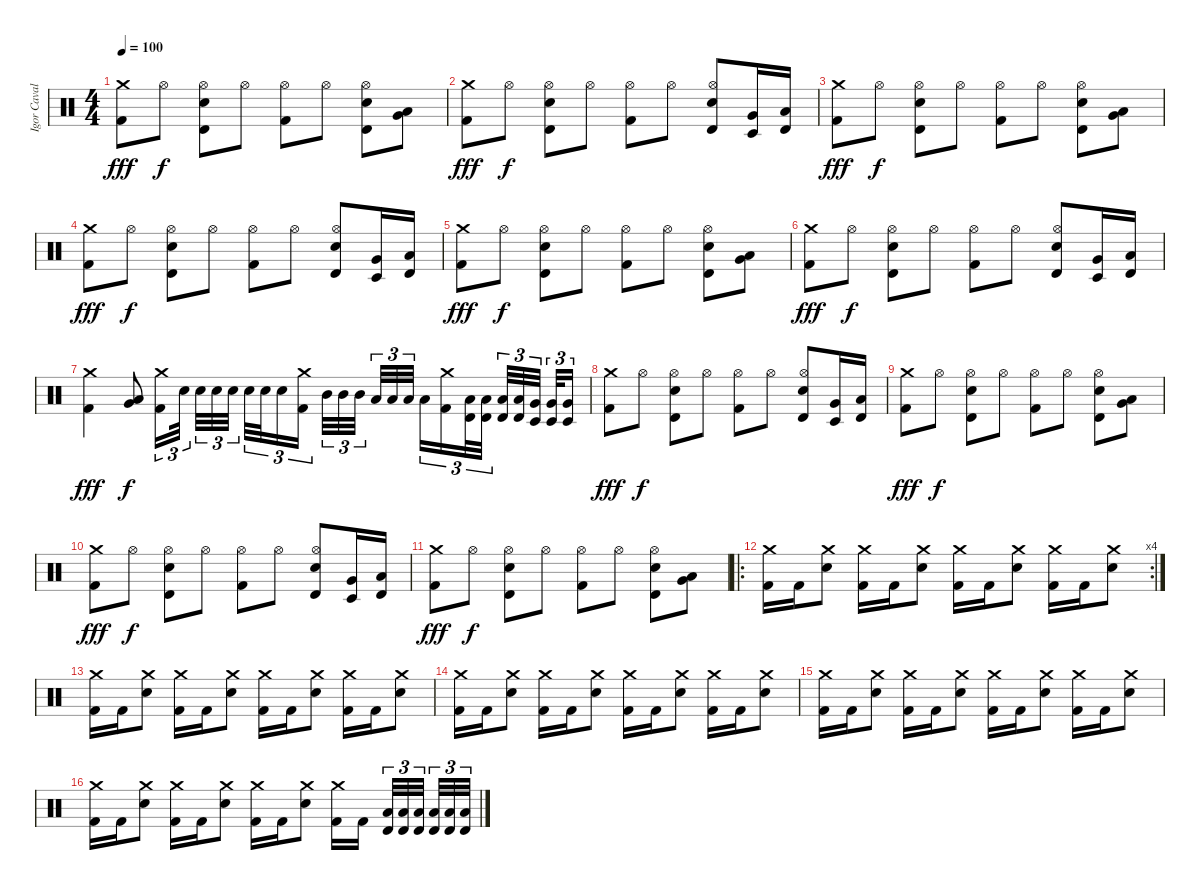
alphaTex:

\track ("Igor Cavalera" "Igor Caval") {instrument percussion}
\staff {score}
\articulation defaults
\ts (4 4)
\tempo 100
\clef neutral
\ks c
("Crash medium (hit)" "Kick (hit) 2").8{dy fff} "Hi-Hat (open)".8{dy f} ("Timbale high (hit)" "Electric Snare (hit)" "Hi-Hat (open)").8 "Hi-Hat (open)".8 ("Kick (hit) 2" "Hi-Hat (open)").8 "Hi-Hat (open)".8 ("Timbale high (hit)" "Electric Snare (hit)" "Hi-Hat (open)").8 ("Low Floor Tom (hit)" "Very Low Tom (hit)").8 |
("Crash medium (hit)" "Kick (hit) 2").8{dy fff} "Hi-Hat (open)".8{dy f} ("Timbale high (hit)" "Electric Snare (hit)" "Hi-Hat (open)").8 "Hi-Hat (open)".8 ("Kick (hit) 2" "Hi-Hat (open)").8 "Hi-Hat (open)".8 ("Timbale high (hit)" "Electric Snare (hit)" "Hi-Hat (open)").8 ("Timbale low (hit)" "Very Low Tom (hit)").16 ("Timbale high (hit)" "Low Tom (hit)").16 |
("Crash medium (hit)" "Kick (hit) 2").8{dy fff} "Hi-Hat (open)".8{dy f} ("Timbale high (hit)" "Electric Snare (hit)" "Hi-Hat (open)").8 "Hi-Hat (open)".8 ("Kick (hit) 2" "Hi-Hat (open)").8 "Hi-Hat (open)".8 ("Timbale high (hit)" "Electric Snare (hit)" "Hi-Hat (open)").8 ("Low Floor Tom (hit)" "Very Low Tom (hit)").8 |
("Crash medium (hit)" "Kick (hit) 2").8{dy fff} "Hi-Hat (open)".8{dy f} ("Timbale high (hit)" "Electric Snare (hit)" "Hi-Hat (open)").8 "Hi-Hat (open)".8 ("Kick (hit) 2" "Hi-Hat (open)").8 "Hi-Hat (open)".8 ("Timbale high (hit)" "Electric Snare (hit)" "Hi-Hat (open)").8 ("Timbale low (hit)" "Very Low Tom (hit)").16 ("Timbale high (hit)" "Low Tom (hit)").16 |
("Crash medium (hit)" "Kick (hit) 2").8{dy fff} "Hi-Hat (open)".8{dy f} ("Timbale high (hit)" "Electric Snare (hit)" "Hi-Hat (open)").8 "Hi-Hat (open)".8 ("Kick (hit) 2" "Hi-Hat (open)").8 "Hi-Hat (open)".8 ("Timbale high (hit)" "Electric Snare (hit)" "Hi-Hat (open)").8 ("Low Floor Tom (hit)" "Very Low Tom (hit)").8 |
("Crash medium (hit)" "Kick (hit) 2").8{dy fff} "Hi-Hat (open)".8{dy f} ("Timbale high (hit)" "Electric Snare (hit)" "Hi-Hat (open)").8 "Hi-Hat (open)".8 ("Kick (hit) 2" "Hi-Hat (open)").8 "Hi-Hat (open)".8 ("Timbale high (hit)" "Electric Snare (hit)" "Hi-Hat (open)").8 ("Timbale low (hit)" "Very Low Tom (hit)").16 ("Timbale high (hit)" "Low Tom (hit)").16 |
("Crash medium (hit)" "Kick (hit) 2").4{dy fff} ("Very Low Tom (hit)" "Low Floor Tom (hit)").8{dy f} ("Kick (hit) 2" "Crash medium (hit)").16{tu (3 2)} "Electric Snare (hit)".32{tu (3 2)} "Electric Snare (hit)".32{tu (3 2)} "Electric Snare (hit)".32{tu (3 2)} "Electric Snare (hit)".32{tu (3 2)} "Electric Snare (hit)".32{tu (3 2)} "Electric Snare (hit)".32{tu (3 2)} "Electric Snare (hit)".16{tu (3 2)} ("Crash medium (hit)" "Kick (hit) 2").16{tu (3 2)} "Mid Tom (hit)".32{tu (3 2)} "Mid Tom (hit)".32{tu (3 2)} "Mid Tom (hit)".32{tu (3 2)} "Low Tom (hit)".32{tu (3 2)} "Low Tom (hit)".32{tu (3 2)} "Low Tom (hit)".32{tu (3 2)} "Low Tom (hit)".16{tu (3 2)} ("Crash medium (hit)" "Kick (hit) 2").16{tu (3 2)} ("Low Tom (hit)" "Timbale high (hit)").32{tu (3 2)} ("Low Tom (hit)" "Timbale high (hit)").32{tu (3 2)} ("Low Tom (hit)" "Timbale high (hit)").32{tu (3 2)} ("Low Tom (hit)" "Timbale high (hit)").32{tu (3 2)} ("Very Low Tom (hit)" "Timbale low (hit)").32{tu (3 2)} ("Very Low Tom (hit)" "Timbale low (hit)").32{tu (3 2)} ("Very Low Tom (hit)" "Timbale low (hit)").16{tu (3 2)} |
("Crash medium (hit)" "Kick (hit) 2").8{dy fff} "Hi-Hat (open)".8{dy f} ("Timbale high (hit)" "Electric Snare (hit)" "Hi-Hat (open)").8 "Hi-Hat (open)".8 ("Kick (hit) 2" "Hi-Hat (open)").8 "Hi-Hat (open)".8 ("Timbale high (hit)" "Electric Snare (hit)" "Hi-Hat (open)").8 ("Timbale low (hit)" "Very Low Tom (hit)").16 ("Timbale high (hit)" "Low Tom (hit)").16 |
("Crash medium (hit)" "Kick (hit) 2").8{dy fff} "Hi-Hat (open)".8{dy f} ("Timbale high (hit)" "Electric Snare (hit)" "Hi-Hat (open)").8 "Hi-Hat (open)".8 ("Kick (hit) 2" "Hi-Hat (open)").8 "Hi-Hat (open)".8 ("Timbale high (hit)" "Electric Snare (hit)" "Hi-Hat (open)").8 ("Low Floor Tom (hit)" "Very Low Tom (hit)").8 |
("Crash medium (hit)" "Kick (hit) 2").8{dy fff} "Hi-Hat (open)".8{dy f} ("Timbale high (hit)" "Electric Snare (hit)" "Hi-Hat (open)").8 "Hi-Hat (open)".8 ("Kick (hit) 2" "Hi-Hat (open)").8 "Hi-Hat (open)".8 ("Timbale high (hit)" "Electric Snare (hit)" "Hi-Hat (open)").8 ("Timbale low (hit)" "Very Low Tom (hit)").16 ("Timbale high (hit)" "Low Tom (hit)").16 |
("Crash medium (hit)" "Kick (hit) 2").8{dy fff} "Hi-Hat (open)".8{dy f} ("Timbale high (hit)" "Electric Snare (hit)" "Hi-Hat (open)").8 "Hi-Hat (open)".8 ("Kick (hit) 2" "Hi-Hat (open)").8 "Hi-Hat (open)".8 ("Timbale high (hit)" "Electric Snare (hit)" "Hi-Hat (open)").8 ("Low Floor Tom (hit)" "Very Low Tom (hit)").8 |
\ro
\rc 4
("Crash medium (hit)" "Kick (hit) 2").16 "Kick (hit) 2".16 ("Crash medium (hit)" "Electric Snare (hit)").8 ("Crash medium (hit)" "Kick (hit) 2").16 "Kick (hit) 2".16 ("Crash medium (hit)" "Electric Snare (hit)").8 ("Crash medium (hit)" "Kick (hit) 2").16 "Kick (hit) 2".16 ("Crash medium (hit)" "Electric Snare (hit)").8 ("Crash medium (hit)" "Kick (hit) 2").16 "Kick (hit) 2".16 ("Crash medium (hit)" "Electric Snare (hit)").8 |
("Crash medium (hit)" "Kick (hit) 2").16 "Kick (hit) 2".16 ("Crash medium (hit)" "Electric Snare (hit)").8 ("Crash medium (hit)" "Kick (hit) 2").16 "Kick (hit) 2".16 ("Crash medium (hit)" "Electric Snare (hit)").8 ("Crash medium (hit)" "Kick (hit) 2").16 "Kick (hit) 2".16 ("Crash medium (hit)" "Electric Snare (hit)").8 ("Crash medium (hit)" "Kick (hit) 2").16 "Kick (hit) 2".16 ("Crash medium (hit)" "Electric Snare (hit)").8 |
("Crash medium (hit)" "Kick (hit) 2").16 "Kick (hit) 2".16 ("Crash medium (hit)" "Electric Snare (hit)").8 ("Crash medium (hit)" "Kick (hit) 2").16 "Kick (hit) 2".16 ("Crash medium (hit)" "Electric Snare (hit)").8 ("Crash medium (hit)" "Kick (hit) 2").16 "Kick (hit) 2".16 ("Crash medium (hit)" "Electric Snare (hit)").8 ("Crash medium (hit)" "Kick (hit) 2").16 "Kick (hit) 2".16 ("Crash medium (hit)" "Electric Snare (hit)").8 |
("Crash medium (hit)" "Kick (hit) 2").16 "Kick (hit) 2".16 ("Crash medium (hit)" "Electric Snare (hit)").8 ("Crash medium (hit)" "Kick (hit) 2").16 "Kick (hit) 2".16 ("Crash medium (hit)" "Electric Snare (hit)").8 ("Crash medium (hit)" "Kick (hit) 2").16 "Kick (hit) 2".16 ("Crash medium (hit)" "Electric Snare (hit)").8 ("Crash medium (hit)" "Kick (hit) 2").16 "Kick (hit) 2".16 ("Crash medium (hit)" "Electric Snare (hit)").8 |
("Crash medium (hit)" "Kick (hit) 2").16 "Kick (hit) 2".16 ("Crash medium (hit)" "Electric Snare (hit)").8 ("Crash medium (hit)" "Kick (hit) 2").16 "Kick (hit) 2".16 ("Crash medium (hit)" "Electric Snare (hit)").8 ("Crash medium (hit)" "Kick (hit) 2").16 "Kick (hit) 2".16 ("Crash medium (hit)" "Electric Snare (hit)").8 ("Crash medium (hit)" "Kick (hit) 2").16 "Kick (hit) 2".16 ("Timbale high (hit)" "Low Tom (hit)").32{tu (3 2)} ("Timbale high (hit)" "Low Tom (hit)").32{tu (3 2)} ("Timbale high (hit)" "Low Tom (hit)").32{tu (3 2)} ("Timbale high (hit)" "Low Tom (hit)").32{tu (3 2)} ("Timbale high (hit)" "Low Tom (hit)").32{tu (3 2)} ("Timbale high (hit)" "Low Tom (hit)").32{tu (3 2)}
